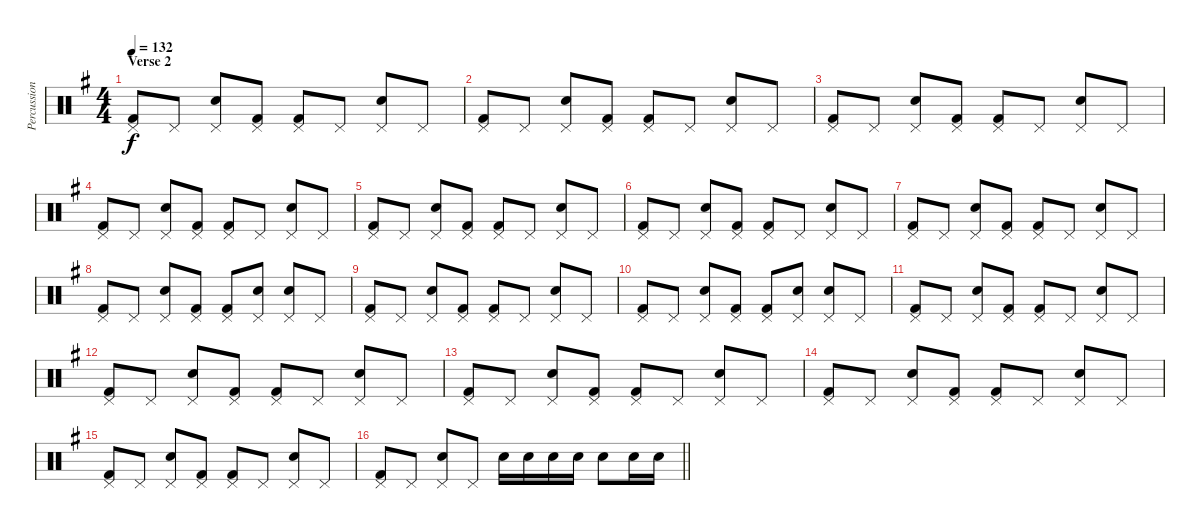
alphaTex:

\track ("Percussion" "Percussion") {instrument percussion}
\staff {score}
\articulation defaults
\ts (4 4)
\section ("" "Verse 2")
\tempo 132
\clef neutral
\ks g
("Pedal Hi-Hat (hit)" "Kick (hit) 2").8{dy f} "Pedal Hi-Hat (hit)".8 ("Pedal Hi-Hat (hit)" "Snare (hit) 2").8 ("Pedal Hi-Hat (hit)" "Kick (hit) 2").8 ("Pedal Hi-Hat (hit)" "Kick (hit) 2").8 "Pedal Hi-Hat (hit)".8 ("Pedal Hi-Hat (hit)" "Snare (hit) 2").8 "Pedal Hi-Hat (hit)".8 |
("Pedal Hi-Hat (hit)" "Kick (hit) 2").8 "Pedal Hi-Hat (hit)".8 ("Pedal Hi-Hat (hit)" "Snare (hit) 2").8 ("Pedal Hi-Hat (hit)" "Kick (hit) 2").8 ("Pedal Hi-Hat (hit)" "Kick (hit) 2").8 "Pedal Hi-Hat (hit)".8 ("Pedal Hi-Hat (hit)" "Snare (hit) 2").8 "Pedal Hi-Hat (hit)".8 |
("Pedal Hi-Hat (hit)" "Kick (hit) 2").8 "Pedal Hi-Hat (hit)".8 ("Pedal Hi-Hat (hit)" "Snare (hit) 2").8 ("Pedal Hi-Hat (hit)" "Kick (hit) 2").8 ("Pedal Hi-Hat (hit)" "Kick (hit) 2").8 "Pedal Hi-Hat (hit)".8 ("Pedal Hi-Hat (hit)" "Snare (hit) 2").8 "Pedal Hi-Hat (hit)".8 |
("Pedal Hi-Hat (hit)" "Kick (hit) 2").8 "Pedal Hi-Hat (hit)".8 ("Pedal Hi-Hat (hit)" "Snare (hit) 2").8 ("Pedal Hi-Hat (hit)" "Kick (hit) 2").8 ("Pedal Hi-Hat (hit)" "Kick (hit) 2").8 "Pedal Hi-Hat (hit)".8 ("Pedal Hi-Hat (hit)" "Snare (hit) 2").8 "Pedal Hi-Hat (hit)".8 |
("Pedal Hi-Hat (hit)" "Kick (hit) 2").8 "Pedal Hi-Hat (hit)".8 ("Pedal Hi-Hat (hit)" "Snare (hit) 2").8 ("Pedal Hi-Hat (hit)" "Kick (hit) 2").8 ("Pedal Hi-Hat (hit)" "Kick (hit) 2").8 "Pedal Hi-Hat (hit)".8 ("Pedal Hi-Hat (hit)" "Snare (hit) 2").8 "Pedal Hi-Hat (hit)".8 |
("Pedal Hi-Hat (hit)" "Kick (hit) 2").8 "Pedal Hi-Hat (hit)".8 ("Pedal Hi-Hat (hit)" "Snare (hit) 2").8 ("Pedal Hi-Hat (hit)" "Kick (hit) 2").8 ("Pedal Hi-Hat (hit)" "Kick (hit) 2").8 "Pedal Hi-Hat (hit)".8 ("Pedal Hi-Hat (hit)" "Snare (hit) 2").8 "Pedal Hi-Hat (hit)".8 |
("Pedal Hi-Hat (hit)" "Kick (hit) 2").8 "Pedal Hi-Hat (hit)".8 ("Pedal Hi-Hat (hit)" "Snare (hit) 2").8 ("Pedal Hi-Hat (hit)" "Kick (hit) 2").8 ("Pedal Hi-Hat (hit)" "Kick (hit) 2").8 "Pedal Hi-Hat (hit)".8 ("Pedal Hi-Hat (hit)" "Snare (hit) 2").8 "Pedal Hi-Hat (hit)".8 |
("Pedal Hi-Hat (hit)" "Kick (hit) 2").8 "Pedal Hi-Hat (hit)".8 ("Pedal Hi-Hat (hit)" "Snare (hit) 2").8 ("Pedal Hi-Hat (hit)" "Kick (hit) 2").8 ("Pedal Hi-Hat (hit)" "Kick (hit) 2").8 ("Pedal Hi-Hat (hit)" "Snare (hit) 2").8 ("Pedal Hi-Hat (hit)" "Snare (hit) 2").8 "Pedal Hi-Hat (hit)".8 |
("Pedal Hi-Hat (hit)" "Kick (hit) 2").8 "Pedal Hi-Hat (hit)".8 ("Pedal Hi-Hat (hit)" "Snare (hit) 2").8 ("Pedal Hi-Hat (hit)" "Kick (hit) 2").8 ("Pedal Hi-Hat (hit)" "Kick (hit) 2").8 "Pedal Hi-Hat (hit)".8 ("Pedal Hi-Hat (hit)" "Snare (hit) 2").8 "Pedal Hi-Hat (hit)".8 |
("Pedal Hi-Hat (hit)" "Kick (hit) 2").8 "Pedal Hi-Hat (hit)".8 ("Pedal Hi-Hat (hit)" "Snare (hit) 2").8 ("Pedal Hi-Hat (hit)" "Kick (hit) 2").8 ("Pedal Hi-Hat (hit)" "Kick (hit) 2").8 ("Pedal Hi-Hat (hit)" "Snare (hit) 2").8 ("Pedal Hi-Hat (hit)" "Snare (hit) 2").8 "Pedal Hi-Hat (hit)".8 |
("Pedal Hi-Hat (hit)" "Kick (hit) 2").8 "Pedal Hi-Hat (hit)".8 ("Pedal Hi-Hat (hit)" "Snare (hit) 2").8 ("Pedal Hi-Hat (hit)" "Kick (hit) 2").8 ("Pedal Hi-Hat (hit)" "Kick (hit) 2").8 "Pedal Hi-Hat (hit)".8 ("Pedal Hi-Hat (hit)" "Snare (hit) 2").8 "Pedal Hi-Hat (hit)".8 |
("Pedal Hi-Hat (hit)" "Kick (hit) 2").8 "Pedal Hi-Hat (hit)".8 ("Pedal Hi-Hat (hit)" "Snare (hit) 2").8 ("Pedal Hi-Hat (hit)" "Kick (hit) 2").8 ("Pedal Hi-Hat (hit)" "Kick (hit) 2").8 "Pedal Hi-Hat (hit)".8 ("Pedal Hi-Hat (hit)" "Snare (hit) 2").8 "Pedal Hi-Hat (hit)".8 |
("Pedal Hi-Hat (hit)" "Kick (hit) 2").8 "Pedal Hi-Hat (hit)".8 ("Pedal Hi-Hat (hit)" "Snare (hit) 2").8 ("Pedal Hi-Hat (hit)" "Kick (hit) 2").8 ("Pedal Hi-Hat (hit)" "Kick (hit) 2").8 "Pedal Hi-Hat (hit)".8 ("Pedal Hi-Hat (hit)" "Snare (hit) 2").8 "Pedal Hi-Hat (hit)".8 |
("Pedal Hi-Hat (hit)" "Kick (hit) 2").8 "Pedal Hi-Hat (hit)".8 ("Pedal Hi-Hat (hit)" "Snare (hit) 2").8 ("Pedal Hi-Hat (hit)" "Kick (hit) 2").8 ("Pedal Hi-Hat (hit)" "Kick (hit) 2").8 "Pedal Hi-Hat (hit)".8 ("Pedal Hi-Hat (hit)" "Snare (hit) 2").8 "Pedal Hi-Hat (hit)".8 |
("Pedal Hi-Hat (hit)" "Kick (hit) 2").8 "Pedal Hi-Hat (hit)".8 ("Pedal Hi-Hat (hit)" "Snare (hit) 2").8 ("Pedal Hi-Hat (hit)" "Kick (hit) 2").8 ("Pedal Hi-Hat (hit)" "Kick (hit) 2").8 "Pedal Hi-Hat (hit)".8 ("Pedal Hi-Hat (hit)" "Snare (hit) 2").8 "Pedal Hi-Hat (hit)".8 |
\barLineRight lightlight
("Pedal Hi-Hat (hit)" "Kick (hit) 2").8 "Pedal Hi-Hat (hit)".8 ("Pedal Hi-Hat (hit)" "Snare (hit) 2").8 "Pedal Hi-Hat (hit)".8 "Electric Snare (hit)".16 "Electric Snare (hit)".16 "Electric Snare (hit)".16 "Electric Snare (hit)".16 "Electric Snare (hit)".8 "Electric Snare (hit)".16 "Electric Snare (hit)".16
